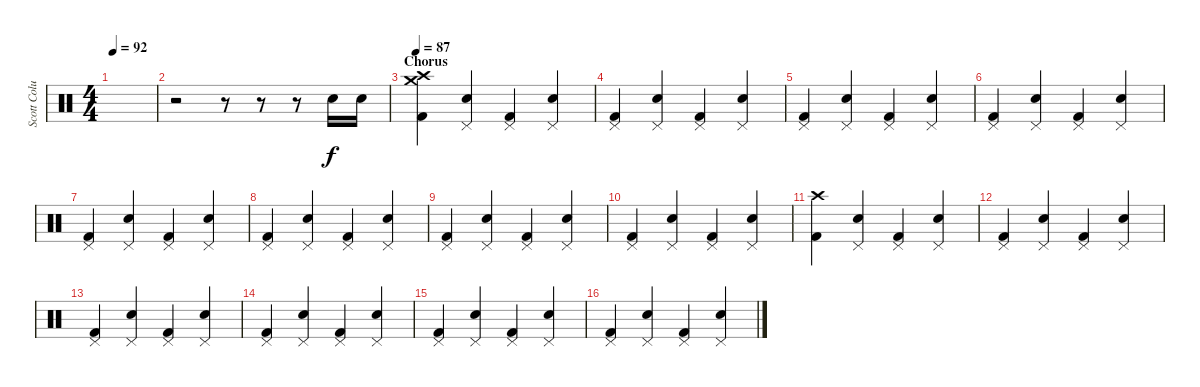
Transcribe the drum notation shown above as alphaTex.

\track ("Scott Columbus" "Scott Colu") {instrument percussion}
\staff {score}
\articulation defaults
\ts (4 4)
\tempo 92
\clef neutral
\ks c
|
r.2 r.8 r.8 r.8 "Snare (hit) 2".16 "Snare (hit) 2".16 |
\section ("" "Chorus")
\tempo 87
("Crash high (hit)" "Crash medium (hit)" "Kick (hit) 2").4 ("Snare (hit) 2" "Pedal Hi-Hat (hit)").4 ("Pedal Hi-Hat (hit)" "Kick (hit) 2").4 ("Snare (hit) 2" "Pedal Hi-Hat (hit)").4 |
("Pedal Hi-Hat (hit)" "Kick (hit) 2").4 ("Snare (hit) 2" "Pedal Hi-Hat (hit)").4 ("Pedal Hi-Hat (hit)" "Kick (hit) 2").4 ("Snare (hit) 2" "Pedal Hi-Hat (hit)").4 |
("Pedal Hi-Hat (hit)" "Kick (hit) 2").4 ("Snare (hit) 2" "Pedal Hi-Hat (hit)").4 ("Pedal Hi-Hat (hit)" "Kick (hit) 2").4 ("Snare (hit) 2" "Pedal Hi-Hat (hit)").4 |
("Pedal Hi-Hat (hit)" "Kick (hit) 2").4 ("Snare (hit) 2" "Pedal Hi-Hat (hit)").4 ("Pedal Hi-Hat (hit)" "Kick (hit) 2").4 ("Snare (hit) 2" "Pedal Hi-Hat (hit)").4 |
("Pedal Hi-Hat (hit)" "Kick (hit) 2").4 ("Snare (hit) 2" "Pedal Hi-Hat (hit)").4 ("Pedal Hi-Hat (hit)" "Kick (hit) 2").4 ("Snare (hit) 2" "Pedal Hi-Hat (hit)").4 |
("Pedal Hi-Hat (hit)" "Kick (hit) 2").4 ("Snare (hit) 2" "Pedal Hi-Hat (hit)").4 ("Pedal Hi-Hat (hit)" "Kick (hit) 2").4 ("Snare (hit) 2" "Pedal Hi-Hat (hit)").4 |
("Pedal Hi-Hat (hit)" "Kick (hit) 2").4 ("Snare (hit) 2" "Pedal Hi-Hat (hit)").4 ("Pedal Hi-Hat (hit)" "Kick (hit) 2").4 ("Snare (hit) 2" "Pedal Hi-Hat (hit)").4 |
("Pedal Hi-Hat (hit)" "Kick (hit) 2").4 ("Snare (hit) 2" "Pedal Hi-Hat (hit)").4 ("Pedal Hi-Hat (hit)" "Kick (hit) 2").4 ("Snare (hit) 2" "Pedal Hi-Hat (hit)").4 |
("Crash high (hit)" "Kick (hit) 2").4 ("Snare (hit) 2" "Pedal Hi-Hat (hit)").4 ("Pedal Hi-Hat (hit)" "Kick (hit) 2").4 ("Snare (hit) 2" "Pedal Hi-Hat (hit)").4 |
("Pedal Hi-Hat (hit)" "Kick (hit) 2").4 ("Snare (hit) 2" "Pedal Hi-Hat (hit)").4 ("Pedal Hi-Hat (hit)" "Kick (hit) 2").4 ("Snare (hit) 2" "Pedal Hi-Hat (hit)").4 |
("Pedal Hi-Hat (hit)" "Kick (hit) 2").4 ("Snare (hit) 2" "Pedal Hi-Hat (hit)").4 ("Pedal Hi-Hat (hit)" "Kick (hit) 2").4 ("Snare (hit) 2" "Pedal Hi-Hat (hit)").4 |
("Pedal Hi-Hat (hit)" "Kick (hit) 2").4 ("Snare (hit) 2" "Pedal Hi-Hat (hit)").4 ("Pedal Hi-Hat (hit)" "Kick (hit) 2").4 ("Snare (hit) 2" "Pedal Hi-Hat (hit)").4 |
("Pedal Hi-Hat (hit)" "Kick (hit) 2").4 ("Snare (hit) 2" "Pedal Hi-Hat (hit)").4 ("Pedal Hi-Hat (hit)" "Kick (hit) 2").4 ("Snare (hit) 2" "Pedal Hi-Hat (hit)").4 |
("Pedal Hi-Hat (hit)" "Kick (hit) 2").4 ("Snare (hit) 2" "Pedal Hi-Hat (hit)").4 ("Pedal Hi-Hat (hit)" "Kick (hit) 2").4 ("Snare (hit) 2" "Pedal Hi-Hat (hit)").4
